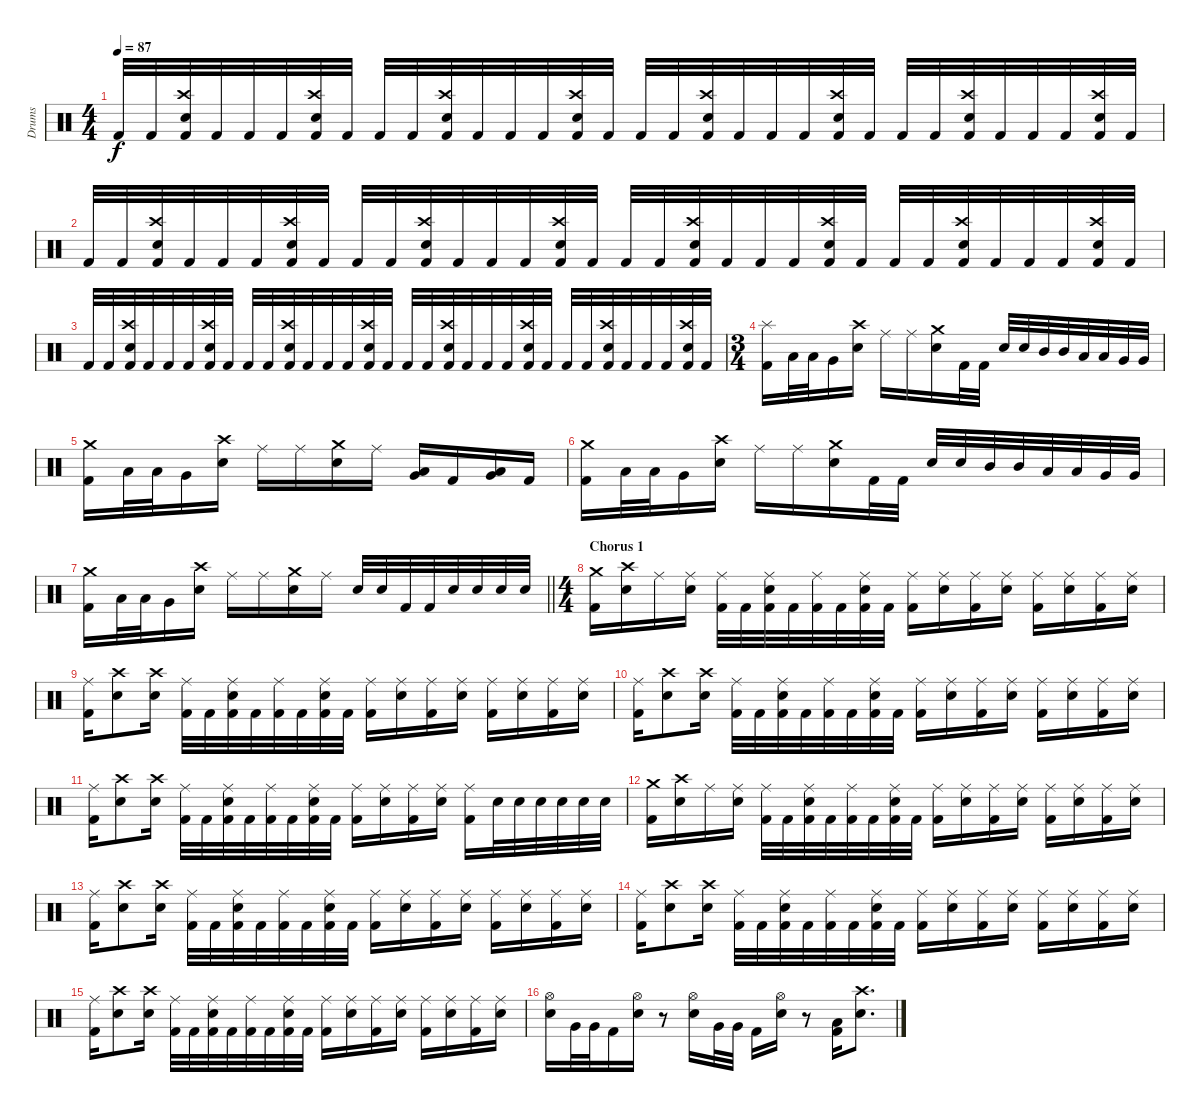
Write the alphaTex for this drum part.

\track ("Drums" "Drums") {instrument percussion}
\staff {score}
\articulation defaults
\ts (4 4)
\tempo 87
\clef neutral
\ks c "Kick (hit) 2".32{dy f} "Kick (hit) 2".32
("Crash high (hit)" "Electric Snare (hit)" "Kick (hit) 2").32 "Kick (hit) 2".32 "Kick (hit) 2".32 "Kick (hit) 2".32 ("Crash high (hit)" "Electric Snare (hit)" "Kick (hit) 2").32 "Kick (hit) 2".32 "Kick (hit) 2".32 "Kick (hit) 2".32 ("Crash high (hit)" "Electric Snare (hit)" "Kick (hit) 2").32 "Kick (hit) 2".32 "Kick (hit) 2".32 "Kick (hit) 2".32 ("Crash high (hit)" "Electric Snare (hit)" "Kick (hit) 2").32 "Kick (hit) 2".32 "Kick (hit) 2".32 "Kick (hit) 2".32 ("Crash high (hit)" "Electric Snare (hit)" "Kick (hit) 2").32 "Kick (hit) 2".32 "Kick (hit) 2".32 "Kick (hit) 2".32 ("Crash high (hit)" "Electric Snare (hit)" "Kick (hit) 2").32 "Kick (hit) 2".32 "Kick (hit) 2".32 "Kick (hit) 2".32 ("Crash high (hit)" "Electric Snare (hit)" "Kick (hit) 2").32 "Kick (hit) 2".32 "Kick (hit) 2".32 "Kick (hit) 2".32 ("Crash high (hit)" "Electric Snare (hit)" "Kick (hit) 2").32 "Kick (hit) 2".32 |
"Kick (hit) 2".32 "Kick (hit) 2".32 ("Crash high (hit)" "Electric Snare (hit)" "Kick (hit) 2").32 "Kick (hit) 2".32 "Kick (hit) 2".32 "Kick (hit) 2".32 ("Crash high (hit)" "Electric Snare (hit)" "Kick (hit) 2").32 "Kick (hit) 2".32 "Kick (hit) 2".32 "Kick (hit) 2".32 ("Crash high (hit)" "Electric Snare (hit)" "Kick (hit) 2").32 "Kick (hit) 2".32 "Kick (hit) 2".32 "Kick (hit) 2".32 ("Crash high (hit)" "Electric Snare (hit)" "Kick (hit) 2").32 "Kick (hit) 2".32 "Kick (hit) 2".32 "Kick (hit) 2".32 ("Crash high (hit)" "Electric Snare (hit)" "Kick (hit) 2").32 "Kick (hit) 2".32 "Kick (hit) 2".32 "Kick (hit) 2".32 ("Crash high (hit)" "Electric Snare (hit)" "Kick (hit) 2").32 "Kick (hit) 2".32 "Kick (hit) 2".32 "Kick (hit) 2".32 ("Crash high (hit)" "Electric Snare (hit)" "Kick (hit) 2").32 "Kick (hit) 2".32 "Kick (hit) 2".32 "Kick (hit) 2".32 ("Crash high (hit)" "Electric Snare (hit)" "Kick (hit) 2").32 "Kick (hit) 2".32 |
"Kick (hit) 2".32 "Kick (hit) 2".32 ("Crash high (hit)" "Electric Snare (hit)" "Kick (hit) 2").32 "Kick (hit) 2".32 "Kick (hit) 2".32 "Kick (hit) 2".32 ("Crash high (hit)" "Electric Snare (hit)" "Kick (hit) 2").32 "Kick (hit) 2".32 "Kick (hit) 2".32 "Kick (hit) 2".32 ("Crash high (hit)" "Electric Snare (hit)" "Kick (hit) 2").32 "Kick (hit) 2".32 "Kick (hit) 2".32 "Kick (hit) 2".32 ("Crash high (hit)" "Electric Snare (hit)" "Kick (hit) 2").32 "Kick (hit) 2".32 "Kick (hit) 2".32 "Kick (hit) 2".32 ("Crash high (hit)" "Electric Snare (hit)" "Kick (hit) 2").32 "Kick (hit) 2".32 "Kick (hit) 2".32 "Kick (hit) 2".32 ("Crash high (hit)" "Electric Snare (hit)" "Kick (hit) 2").32 "Kick (hit) 2".32 "Kick (hit) 2".32 "Kick (hit) 2".32 ("Crash high (hit)" "Electric Snare (hit)" "Kick (hit) 2").32 "Kick (hit) 2".32 "Kick (hit) 2".32 "Kick (hit) 2".32 ("Crash high (hit)" "Electric Snare (hit)" "Kick (hit) 2").32 "Kick (hit) 2".32 |
\ts (3 4)
("Splash (hit)" "Kick (hit) 2").16 "Low Tom (hit)".32 "Low Tom (hit)".32 "Very Low Tom (hit)".16 ("Crash high (hit)" "Electric Snare (hit)").16 "Ride (middle)".16 "Ride (middle)".16 ("Crash medium (hit)" "Electric Snare (hit)").16 "Kick (hit) 2".32 "Kick (hit) 2".32 "Electric Snare (hit)".32 "Electric Snare (hit)".32 "Mid Tom (hit)".32 "Mid Tom (hit)".32 "Low Tom (hit)".32 "Low Tom (hit)".32 "Very Low Tom (hit)".32 "Very Low Tom (hit)".32 |
("Crash medium (hit)" "Kick (hit) 2").16 "Low Tom (hit)".32 "Low Tom (hit)".32 "Very Low Tom (hit)".16 ("Crash high (hit)" "Electric Snare (hit)").16 "Ride (middle)".16 "Ride (middle)".16 ("Crash medium (hit)" "Electric Snare (hit)").16 "Ride (middle)".16 ("Low Tom (hit)" "Very Low Tom (hit)").16 "Kick (hit) 2".16 ("Low Tom (hit)" "Very Low Tom (hit)").16 "Kick (hit) 2".16 |
("Crash medium (hit)" "Kick (hit) 2").16 "Low Tom (hit)".32 "Low Tom (hit)".32 "Very Low Tom (hit)".16 ("Crash high (hit)" "Electric Snare (hit)").16 "Ride (middle)".16 "Ride (middle)".16 ("Crash medium (hit)" "Electric Snare (hit)").16 "Kick (hit) 2".32 "Kick (hit) 2".32 "Electric Snare (hit)".32 "Electric Snare (hit)".32 "Mid Tom (hit)".32 "Mid Tom (hit)".32 "Low Tom (hit)".32 "Low Tom (hit)".32 "Very Low Tom (hit)".32 "Very Low Tom (hit)".32 |
\barLineRight lightlight
("Crash medium (hit)" "Kick (hit) 2").16 "Low Tom (hit)".32 "Low Tom (hit)".32 "Very Low Tom (hit)".16 ("Crash high (hit)" "Electric Snare (hit)").16 "Ride (middle)".16 "Ride (middle)".16 ("Crash medium (hit)" "Electric Snare (hit)").16 "Ride (middle)".16 "Electric Snare (hit)".32 "Electric Snare (hit)".32 "Kick (hit) 2".32 "Kick (hit) 2".32 "Electric Snare (hit)".32 "Electric Snare (hit)".32 "Electric Snare (hit)".32 "Electric Snare (hit)".32 |
\ts (4 4)
\section ("" "Chorus 1")
("Crash medium (hit)" "Kick (hit) 2").16 ("Crash high (hit)" "Electric Snare (hit)").16 "Ride (middle)".16 ("Ride (middle)" "Electric Snare (hit)").16 ("Ride (middle)" "Kick (hit) 2").32 "Kick (hit) 2".32 ("Ride (middle)" "Electric Snare (hit)" "Kick (hit) 2").32 "Kick (hit) 2".32 ("Ride (middle)" "Kick (hit) 2").32 "Kick (hit) 2".32 ("Ride (middle)" "Electric Snare (hit)" "Kick (hit) 2").32 "Kick (hit) 2".32 ("Ride (middle)" "Kick (hit) 2").16 ("Ride (middle)" "Electric Snare (hit)").16 ("Ride (middle)" "Kick (hit) 2").16 ("Ride (middle)" "Electric Snare (hit)").16 ("Ride (middle)" "Kick (hit) 2").16 ("Ride (middle)" "Electric Snare (hit)").16 ("Ride (middle)" "Kick (hit) 2").16 ("Ride (middle)" "Electric Snare (hit)").16 |
("Ride (middle)" "Kick (hit) 2").16 ("Crash high (hit)" "Electric Snare (hit)").8 ("Crash high (hit)" "Electric Snare (hit)").16 ("Ride (middle)" "Kick (hit) 2").32 "Kick (hit) 2".32 ("Ride (middle)" "Electric Snare (hit)" "Kick (hit) 2").32 "Kick (hit) 2".32 ("Ride (middle)" "Kick (hit) 2").32 "Kick (hit) 2".32 ("Ride (middle)" "Electric Snare (hit)" "Kick (hit) 2").32 "Kick (hit) 2".32 ("Ride (middle)" "Kick (hit) 2").16 ("Ride (middle)" "Electric Snare (hit)").16 ("Ride (middle)" "Kick (hit) 2").16 ("Ride (middle)" "Electric Snare (hit)").16 ("Ride (middle)" "Kick (hit) 2").16 ("Ride (middle)" "Electric Snare (hit)").16 ("Ride (middle)" "Kick (hit) 2").16 ("Ride (middle)" "Electric Snare (hit)").16 |
("Ride (middle)" "Kick (hit) 2").16 ("Crash high (hit)" "Electric Snare (hit)").8 ("Crash high (hit)" "Electric Snare (hit)").16 ("Ride (middle)" "Kick (hit) 2").32 "Kick (hit) 2".32 ("Ride (middle)" "Electric Snare (hit)" "Kick (hit) 2").32 "Kick (hit) 2".32 ("Ride (middle)" "Kick (hit) 2").32 "Kick (hit) 2".32 ("Ride (middle)" "Electric Snare (hit)" "Kick (hit) 2").32 "Kick (hit) 2".32 ("Ride (middle)" "Kick (hit) 2").16 ("Ride (middle)" "Electric Snare (hit)").16 ("Ride (middle)" "Kick (hit) 2").16 ("Ride (middle)" "Electric Snare (hit)").16 ("Ride (middle)" "Kick (hit) 2").16 ("Ride (middle)" "Electric Snare (hit)").16 ("Ride (middle)" "Kick (hit) 2").16 ("Ride (middle)" "Electric Snare (hit)").16 |
("Ride (middle)" "Kick (hit) 2").16 ("Crash high (hit)" "Electric Snare (hit)").8 ("Crash high (hit)" "Electric Snare (hit)").16 ("Ride (middle)" "Kick (hit) 2").32 "Kick (hit) 2".32 ("Ride (middle)" "Electric Snare (hit)" "Kick (hit) 2").32 "Kick (hit) 2".32 ("Ride (middle)" "Kick (hit) 2").32 "Kick (hit) 2".32 ("Ride (middle)" "Electric Snare (hit)" "Kick (hit) 2").32 "Kick (hit) 2".32 ("Ride (middle)" "Kick (hit) 2").16 ("Ride (middle)" "Electric Snare (hit)").16 ("Ride (middle)" "Kick (hit) 2").16 ("Ride (middle)" "Electric Snare (hit)").16 ("Ride (middle)" "Kick (hit) 2").16 "Electric Snare (hit)".32 "Electric Snare (hit)".32 "Electric Snare (hit)".32 "Electric Snare (hit)".32 "Electric Snare (hit)".32 "Electric Snare (hit)".32 |
("Crash medium (hit)" "Kick (hit) 2").16 ("Crash high (hit)" "Electric Snare (hit)").16 "Ride (middle)".16 ("Ride (middle)" "Electric Snare (hit)").16 ("Ride (middle)" "Kick (hit) 2").32 "Kick (hit) 2".32 ("Ride (middle)" "Electric Snare (hit)" "Kick (hit) 2").32 "Kick (hit) 2".32 ("Ride (middle)" "Kick (hit) 2").32 "Kick (hit) 2".32 ("Ride (middle)" "Electric Snare (hit)" "Kick (hit) 2").32 "Kick (hit) 2".32 ("Ride (middle)" "Kick (hit) 2").16 ("Ride (middle)" "Electric Snare (hit)").16 ("Ride (middle)" "Kick (hit) 2").16 ("Ride (middle)" "Electric Snare (hit)").16 ("Ride (middle)" "Kick (hit) 2").16 ("Ride (middle)" "Electric Snare (hit)").16 ("Ride (middle)" "Kick (hit) 2").16 ("Ride (middle)" "Electric Snare (hit)").16 |
("Ride (middle)" "Kick (hit) 2").16 ("Crash high (hit)" "Electric Snare (hit)").8 ("Crash high (hit)" "Electric Snare (hit)").16 ("Ride (middle)" "Kick (hit) 2").32 "Kick (hit) 2".32 ("Ride (middle)" "Electric Snare (hit)" "Kick (hit) 2").32 "Kick (hit) 2".32 ("Ride (middle)" "Kick (hit) 2").32 "Kick (hit) 2".32 ("Ride (middle)" "Electric Snare (hit)" "Kick (hit) 2").32 "Kick (hit) 2".32 ("Ride (middle)" "Kick (hit) 2").16 ("Ride (middle)" "Electric Snare (hit)").16 ("Ride (middle)" "Kick (hit) 2").16 ("Ride (middle)" "Electric Snare (hit)").16 ("Ride (middle)" "Kick (hit) 2").16 ("Ride (middle)" "Electric Snare (hit)").16 ("Ride (middle)" "Kick (hit) 2").16 ("Ride (middle)" "Electric Snare (hit)").16 |
("Ride (middle)" "Kick (hit) 2").16 ("Crash high (hit)" "Electric Snare (hit)").8 ("Crash high (hit)" "Electric Snare (hit)").16 ("Ride (middle)" "Kick (hit) 2").32 "Kick (hit) 2".32 ("Ride (middle)" "Electric Snare (hit)" "Kick (hit) 2").32 "Kick (hit) 2".32 ("Ride (middle)" "Kick (hit) 2").32 "Kick (hit) 2".32 ("Ride (middle)" "Electric Snare (hit)" "Kick (hit) 2").32 "Kick (hit) 2".32 ("Ride (middle)" "Kick (hit) 2").16 ("Ride (middle)" "Electric Snare (hit)").16 ("Ride (middle)" "Kick (hit) 2").16 ("Ride (middle)" "Electric Snare (hit)").16 ("Ride (middle)" "Kick (hit) 2").16 ("Ride (middle)" "Electric Snare (hit)").16 ("Ride (middle)" "Kick (hit) 2").16 ("Ride (middle)" "Electric Snare (hit)").16 |
("Ride (middle)" "Kick (hit) 2").16 ("Crash high (hit)" "Electric Snare (hit)").8 ("Crash high (hit)" "Electric Snare (hit)").16 ("Ride (middle)" "Kick (hit) 2").32 "Kick (hit) 2".32 ("Ride (middle)" "Electric Snare (hit)" "Kick (hit) 2").32 "Kick (hit) 2".32 ("Ride (middle)" "Kick (hit) 2").32 "Kick (hit) 2".32 ("Ride (middle)" "Electric Snare (hit)" "Kick (hit) 2").32 "Kick (hit) 2".32 ("Ride (middle)" "Kick (hit) 2").16 ("Ride (middle)" "Electric Snare (hit)").16 ("Ride (middle)" "Kick (hit) 2").16 ("Ride (middle)" "Electric Snare (hit)").16 ("Ride (middle)" "Kick (hit) 2").16 ("Ride (middle)" "Electric Snare (hit)").16 ("Ride (middle)" "Kick (hit) 2").16 ("Ride (middle)" "Electric Snare (hit)").16 |
("Hi-Hat (open)" "Electric Snare (hit)").16 "Very Low Tom (hit)".32 "Very Low Tom (hit)".32 "Kick (hit) 2".16 ("Hi-Hat (open)" "Electric Snare (hit)").16 r.8 ("Hi-Hat (open)" "Electric Snare (hit)").16 "Very Low Tom (hit)".32 "Very Low Tom (hit)".32 "Kick (hit) 2".16 ("Hi-Hat (open)" "Electric Snare (hit)").16 r.8 ("Low Tom (hit)" "Kick (hit) 2").16 ("Crash high (hit)" "Electric Snare (hit)").8{d}
